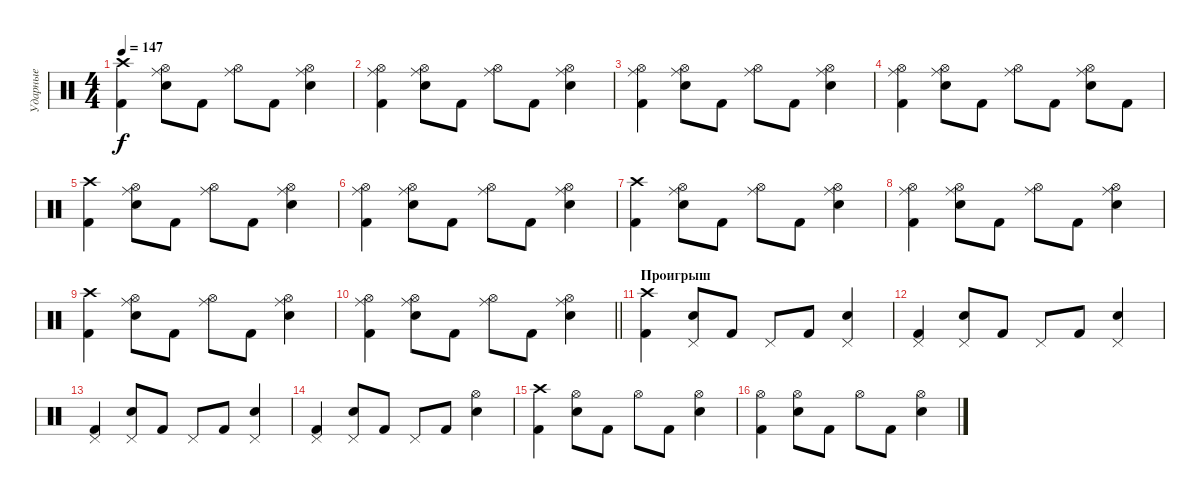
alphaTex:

\track ("Ударные" "Ударные") {instrument percussion}
\staff {score}
\articulation defaults
\ts (4 4)
\tempo 147
\clef neutral
\ks c
("Crash high (hit)" "Kick (hit) 2").4{dy f} ("Ride (middle)" "Hi-Hat (open)" "Snare (hit) 2").8 "Kick (hit) 2".8 ("Ride (middle)" "Hi-Hat (open)").8 "Kick (hit) 2".8 ("Ride (middle)" "Hi-Hat (open)" "Snare (hit) 2").4 |
("Ride (middle)" "Hi-Hat (open)" "Kick (hit) 2").4 ("Ride (middle)" "Hi-Hat (open)" "Snare (hit) 2").8 "Kick (hit) 2".8 ("Ride (middle)" "Hi-Hat (open)").8 "Kick (hit) 2".8 ("Ride (middle)" "Hi-Hat (open)" "Snare (hit) 2").4 |
("Ride (middle)" "Hi-Hat (open)" "Kick (hit) 2").4 ("Ride (middle)" "Hi-Hat (open)" "Snare (hit) 2").8 "Kick (hit) 2".8 ("Ride (middle)" "Hi-Hat (open)").8 "Kick (hit) 2".8 ("Ride (middle)" "Hi-Hat (open)" "Snare (hit) 2").4 |
("Ride (middle)" "Hi-Hat (open)" "Kick (hit) 2").4 ("Ride (middle)" "Hi-Hat (open)" "Snare (hit) 2").8 "Kick (hit) 2".8 ("Ride (middle)" "Hi-Hat (open)").8 "Kick (hit) 2".8 ("Ride (middle)" "Hi-Hat (open)" "Snare (hit) 2").8 "Kick (hit) 2".8 |
("Crash high (hit)" "Kick (hit) 2").4 ("Ride (middle)" "Hi-Hat (open)" "Snare (hit) 2").8 "Kick (hit) 2".8 ("Ride (middle)" "Hi-Hat (open)").8 "Kick (hit) 2".8 ("Ride (middle)" "Hi-Hat (open)" "Snare (hit) 2").4 |
("Ride (middle)" "Hi-Hat (open)" "Kick (hit) 2").4 ("Ride (middle)" "Hi-Hat (open)" "Snare (hit) 2").8 "Kick (hit) 2".8 ("Ride (middle)" "Hi-Hat (open)").8 "Kick (hit) 2".8 ("Ride (middle)" "Hi-Hat (open)" "Snare (hit) 2").4 |
("Crash high (hit)" "Kick (hit) 2").4 ("Ride (middle)" "Hi-Hat (open)" "Snare (hit) 2").8 "Kick (hit) 2".8 ("Ride (middle)" "Hi-Hat (open)").8 "Kick (hit) 2".8 ("Ride (middle)" "Hi-Hat (open)" "Snare (hit) 2").4 |
("Ride (middle)" "Hi-Hat (open)" "Kick (hit) 2").4 ("Ride (middle)" "Hi-Hat (open)" "Snare (hit) 2").8 "Kick (hit) 2".8 ("Ride (middle)" "Hi-Hat (open)").8 "Kick (hit) 2".8 ("Ride (middle)" "Hi-Hat (open)" "Snare (hit) 2").4 |
("Crash high (hit)" "Kick (hit) 2").4 ("Ride (middle)" "Hi-Hat (open)" "Snare (hit) 2").8 "Kick (hit) 2".8 ("Ride (middle)" "Hi-Hat (open)").8 "Kick (hit) 2".8 ("Ride (middle)" "Hi-Hat (open)" "Snare (hit) 2").4 |
\barLineRight lightlight
("Ride (middle)" "Hi-Hat (open)" "Kick (hit) 2").4 ("Ride (middle)" "Hi-Hat (open)" "Snare (hit) 2").8 "Kick (hit) 2".8 ("Ride (middle)" "Hi-Hat (open)").8 "Kick (hit) 2".8 ("Ride (middle)" "Hi-Hat (open)" "Snare (hit) 2").4 |
\section ("" "Проигрыш")
("Crash high (hit)" "Kick (hit) 2").4 ("Pedal Hi-Hat (hit)" "Snare (hit) 2").8 "Kick (hit) 2".8 "Pedal Hi-Hat (hit)".8 "Kick (hit) 2".8 ("Pedal Hi-Hat (hit)" "Snare (hit) 2").4 |
("Pedal Hi-Hat (hit)" "Kick (hit) 2").4 ("Pedal Hi-Hat (hit)" "Snare (hit) 2").8 "Kick (hit) 2".8 "Pedal Hi-Hat (hit)".8 "Kick (hit) 2".8 ("Pedal Hi-Hat (hit)" "Snare (hit) 2").4 |
("Pedal Hi-Hat (hit)" "Kick (hit) 2").4 ("Pedal Hi-Hat (hit)" "Snare (hit) 2").8 "Kick (hit) 2".8 "Pedal Hi-Hat (hit)".8 "Kick (hit) 2".8 ("Pedal Hi-Hat (hit)" "Snare (hit) 2").4 |
("Pedal Hi-Hat (hit)" "Kick (hit) 2").4 ("Pedal Hi-Hat (hit)" "Snare (hit) 2").8 "Kick (hit) 2".8 "Pedal Hi-Hat (hit)".8 "Kick (hit) 2".8 ("Hi-Hat (open)" "Snare (hit) 2").4 |
("Crash high (hit)" "Kick (hit) 2").4 ("Hi-Hat (open)" "Snare (hit) 2").8 "Kick (hit) 2".8 "Hi-Hat (open)".8 "Kick (hit) 2".8 ("Hi-Hat (open)" "Snare (hit) 2").4 |
("Hi-Hat (open)" "Kick (hit) 2").4 ("Hi-Hat (open)" "Snare (hit) 2").8 "Kick (hit) 2".8 "Hi-Hat (open)".8 "Kick (hit) 2".8 ("Hi-Hat (open)" "Snare (hit) 2").4
